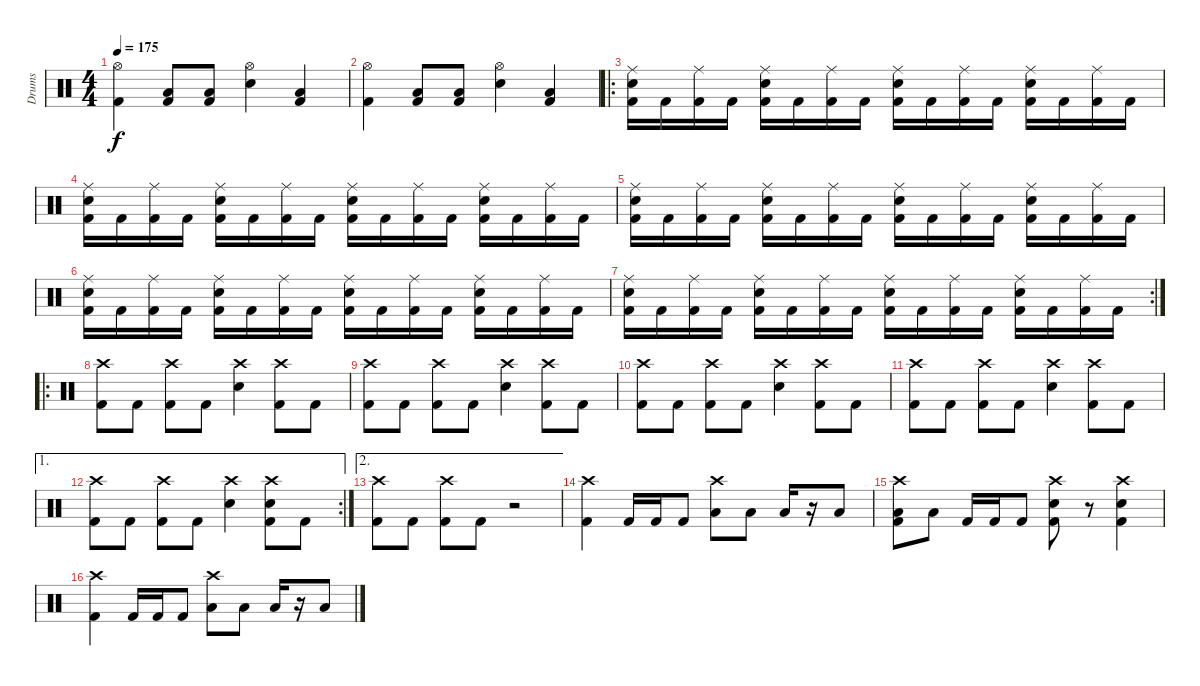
\track ("Drums" "Drums") {instrument percussion}
\staff {score}
\articulation defaults
\ts (4 4)
\tempo 175
\clef neutral
\ks c
("Hi-Hat (open)" "Kick (hit) 2").4{dy f} ("Low Tom (hit)" "Kick (hit) 2").8 ("Low Tom (hit)" "Kick (hit) 2").8 ("Hi-Hat (open)" "Snare (hit) 2").4 ("Low Tom (hit)" "Kick (hit) 2").4 |
("Hi-Hat (open)" "Kick (hit) 2").4 ("Low Tom (hit)" "Kick (hit) 2").8 ("Low Tom (hit)" "Kick (hit) 2").8 ("Hi-Hat (open)" "Snare (hit) 2").4 ("Low Tom (hit)" "Kick (hit) 2").4 |
\ro
("Ride (middle)" "Snare (hit) 2" "Kick (hit) 2").16 "Kick (hit) 2".16 ("Ride (middle)" "Kick (hit) 2").16 "Kick (hit) 2".16 ("Ride (middle)" "Snare (hit) 2" "Kick (hit) 2").16 "Kick (hit) 2".16 ("Ride (middle)" "Kick (hit) 2").16 "Kick (hit) 2".16 ("Ride (middle)" "Snare (hit) 2" "Kick (hit) 2").16 "Kick (hit) 2".16 ("Ride (middle)" "Kick (hit) 2").16 "Kick (hit) 2".16 ("Ride (middle)" "Snare (hit) 2" "Kick (hit) 2").16 "Kick (hit) 2".16 ("Ride (middle)" "Kick (hit) 2").16 "Kick (hit) 2".16 |
("Ride (middle)" "Snare (hit) 2" "Kick (hit) 2").16 "Kick (hit) 2".16 ("Ride (middle)" "Kick (hit) 2").16 "Kick (hit) 2".16 ("Ride (middle)" "Snare (hit) 2" "Kick (hit) 2").16 "Kick (hit) 2".16 ("Ride (middle)" "Kick (hit) 2").16 "Kick (hit) 2".16 ("Ride (middle)" "Snare (hit) 2" "Kick (hit) 2").16 "Kick (hit) 2".16 ("Ride (middle)" "Kick (hit) 2").16 "Kick (hit) 2".16 ("Ride (middle)" "Snare (hit) 2" "Kick (hit) 2").16 "Kick (hit) 2".16 ("Ride (middle)" "Kick (hit) 2").16 "Kick (hit) 2".16 |
("Ride (middle)" "Snare (hit) 2" "Kick (hit) 2").16 "Kick (hit) 2".16 ("Ride (middle)" "Kick (hit) 2").16 "Kick (hit) 2".16 ("Ride (middle)" "Snare (hit) 2" "Kick (hit) 2").16 "Kick (hit) 2".16 ("Ride (middle)" "Kick (hit) 2").16 "Kick (hit) 2".16 ("Ride (middle)" "Snare (hit) 2" "Kick (hit) 2").16 "Kick (hit) 2".16 ("Ride (middle)" "Kick (hit) 2").16 "Kick (hit) 2".16 ("Ride (middle)" "Snare (hit) 2" "Kick (hit) 2").16 "Kick (hit) 2".16 ("Ride (middle)" "Kick (hit) 2").16 "Kick (hit) 2".16 |
("Ride (middle)" "Snare (hit) 2" "Kick (hit) 2").16 "Kick (hit) 2".16 ("Ride (middle)" "Kick (hit) 2").16 "Kick (hit) 2".16 ("Ride (middle)" "Snare (hit) 2" "Kick (hit) 2").16 "Kick (hit) 2".16 ("Ride (middle)" "Kick (hit) 2").16 "Kick (hit) 2".16 ("Ride (middle)" "Snare (hit) 2" "Kick (hit) 2").16 "Kick (hit) 2".16 ("Ride (middle)" "Kick (hit) 2").16 "Kick (hit) 2".16 ("Ride (middle)" "Snare (hit) 2" "Kick (hit) 2").16 "Kick (hit) 2".16 ("Ride (middle)" "Kick (hit) 2").16 "Kick (hit) 2".16 |
\rc 2
("Ride (middle)" "Snare (hit) 2" "Kick (hit) 2").16 "Kick (hit) 2".16 ("Ride (middle)" "Kick (hit) 2").16 "Kick (hit) 2".16 ("Ride (middle)" "Snare (hit) 2" "Kick (hit) 2").16 "Kick (hit) 2".16 ("Ride (middle)" "Kick (hit) 2").16 "Kick (hit) 2".16 ("Ride (middle)" "Snare (hit) 2" "Kick (hit) 2").16 "Kick (hit) 2".16 ("Ride (middle)" "Kick (hit) 2").16 "Kick (hit) 2".16 ("Ride (middle)" "Snare (hit) 2" "Kick (hit) 2").16 "Kick (hit) 2".16 ("Ride (middle)" "Kick (hit) 2").16 "Kick (hit) 2".16 |
\ro
("Crash high (hit)" "Kick (hit) 2").8 "Kick (hit) 2".8 ("Crash high (hit)" "Kick (hit) 2").8 "Kick (hit) 2".8 ("Crash high (hit)" "Snare (hit) 2").4 ("Crash high (hit)" "Kick (hit) 2").8 "Kick (hit) 2".8 |
("Crash high (hit)" "Kick (hit) 2").8 "Kick (hit) 2".8 ("Crash high (hit)" "Kick (hit) 2").8 "Kick (hit) 2".8 ("Crash high (hit)" "Snare (hit) 2").4 ("Crash high (hit)" "Kick (hit) 2").8 "Kick (hit) 2".8 |
("Crash high (hit)" "Kick (hit) 2").8 "Kick (hit) 2".8 ("Crash high (hit)" "Kick (hit) 2").8 "Kick (hit) 2".8 ("Crash high (hit)" "Snare (hit) 2").4 ("Crash high (hit)" "Kick (hit) 2").8 "Kick (hit) 2".8 |
("Crash high (hit)" "Kick (hit) 2").8 "Kick (hit) 2".8 ("Crash high (hit)" "Kick (hit) 2").8 "Kick (hit) 2".8 ("Crash high (hit)" "Snare (hit) 2").4 ("Crash high (hit)" "Kick (hit) 2").8 "Kick (hit) 2".8 |
\ae 1
\rc 2
("Crash high (hit)" "Kick (hit) 2").8 "Kick (hit) 2".8 ("Crash high (hit)" "Kick (hit) 2").8 "Kick (hit) 2".8 ("Crash high (hit)" "Snare (hit) 2").4 ("Crash high (hit)" "Snare (hit) 2" "Kick (hit) 2").8 "Kick (hit) 2".8 |
\ae 2
("Crash high (hit)" "Kick (hit) 2").8 "Kick (hit) 2".8 ("Crash high (hit)" "Kick (hit) 2").8 "Kick (hit) 2".8 r.2 |
("Crash high (hit)" "Kick (hit) 2").4 "Kick (hit) 2".16 "Kick (hit) 2".16 "Kick (hit) 2".8 ("Crash high (hit)" "Low Tom (hit)").8 "Low Tom (hit)".8 "Low Tom (hit)".16 r.16 "Low Tom (hit)".8 |
("Crash high (hit)" "Low Tom (hit)" "Kick (hit) 2").8 "Low Tom (hit)".8 "Kick (hit) 2".16 "Kick (hit) 2".16 "Kick (hit) 2".8 ("Crash high (hit)" "Snare (hit) 2" "Kick (hit) 2").8 r.8 ("Crash high (hit)" "Snare (hit) 2" "Kick (hit) 2").4 |
("Crash high (hit)" "Kick (hit) 2").4 "Kick (hit) 2".16 "Kick (hit) 2".16 "Kick (hit) 2".8 ("Crash high (hit)" "Low Tom (hit)").8 "Low Tom (hit)".8 "Low Tom (hit)".16 r.16 "Low Tom (hit)".8
